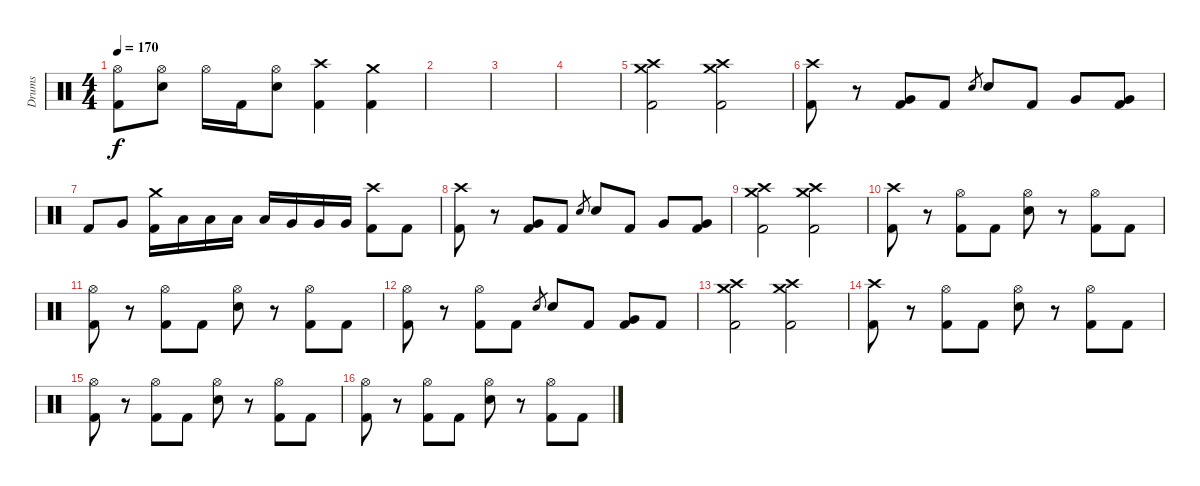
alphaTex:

\track ("Drums" "Drums") {instrument percussion}
\staff {score}
\articulation defaults
\ts (4 4)
\tempo 170
\clef neutral
\ks c
("Hi-Hat (open)" "Kick (hit) 2").8{dy f} ("Hi-Hat (open)" "Electric Snare (hit)").8 "Hi-Hat (open)".16 "Kick (hit) 2".16 ("Hi-Hat (open)" "Electric Snare (hit)").8 ("Crash high (hit)" "Kick (hit) 2").4 ("Crash medium (hit)" "Kick (hit) 2").4 |
|
|
|
("Crash high (hit)" "Crash medium (hit)" "Kick (hit) 2").2 ("Crash high (hit)" "Crash medium (hit)" "Kick (hit) 2").2 |
("Crash high (hit)" "Kick (hit) 2").8 r.8 ("Very Low Tom (hit)" "Kick (hit) 2").8 "Kick (hit) 2".8 "Electric Snare (hit)".8{gr} "Electric Snare (hit)".8 "Kick (hit) 2".8 "Very Low Tom (hit)".8 ("Very Low Tom (hit)" "Kick (hit) 2").8 |
"Kick (hit) 2".8 "Very Low Tom (hit)".8 ("Crash medium (hit)" "Kick (hit) 2").16 "Low Tom (hit)".16 "Low Tom (hit)".16 "Low Tom (hit)".16 "Low Tom (hit)".16 "Very Low Tom (hit)".16 "Very Low Tom (hit)".16 "Very Low Tom (hit)".16 ("Crash high (hit)" "Kick (hit) 2").8 "Kick (hit) 2".8 |
("Crash high (hit)" "Kick (hit) 2").8 r.8 ("Very Low Tom (hit)" "Kick (hit) 2").8 "Kick (hit) 2".8 "Electric Snare (hit)".8{gr} "Electric Snare (hit)".8 "Kick (hit) 2".8 "Very Low Tom (hit)".8 ("Very Low Tom (hit)" "Kick (hit) 2").8 |
("Crash high (hit)" "Crash medium (hit)" "Kick (hit) 2").2 ("Crash high (hit)" "Crash medium (hit)" "Kick (hit) 2").2 |
("Crash high (hit)" "Kick (hit) 2").8 r.8 ("Hi-Hat (open)" "Kick (hit) 2").8 "Kick (hit) 2".8 ("Hi-Hat (open)" "Electric Snare (hit)").8 r.8 ("Hi-Hat (open)" "Kick (hit) 2").8 "Kick (hit) 2".8 |
("Hi-Hat (open)" "Kick (hit) 2").8 r.8 ("Hi-Hat (open)" "Kick (hit) 2").8 "Kick (hit) 2".8 ("Hi-Hat (open)" "Electric Snare (hit)").8 r.8 ("Hi-Hat (open)" "Kick (hit) 2").8 "Kick (hit) 2".8 |
("Hi-Hat (open)" "Kick (hit) 2").8 r.8 ("Hi-Hat (open)" "Kick (hit) 2").8 "Kick (hit) 2".8 "Electric Snare (hit)".8{gr} "Electric Snare (hit)".8 "Kick (hit) 2".8 ("Very Low Tom (hit)" "Kick (hit) 2").8 "Kick (hit) 2".8 |
("Crash high (hit)" "Crash medium (hit)" "Kick (hit) 2").2 ("Crash high (hit)" "Crash medium (hit)" "Kick (hit) 2").2 |
("Crash high (hit)" "Kick (hit) 2").8 r.8 ("Hi-Hat (open)" "Kick (hit) 2").8 "Kick (hit) 2".8 ("Hi-Hat (open)" "Electric Snare (hit)").8 r.8 ("Hi-Hat (open)" "Kick (hit) 2").8 "Kick (hit) 2".8 |
("Hi-Hat (open)" "Kick (hit) 2").8 r.8 ("Hi-Hat (open)" "Kick (hit) 2").8 "Kick (hit) 2".8 ("Hi-Hat (open)" "Electric Snare (hit)").8 r.8 ("Hi-Hat (open)" "Kick (hit) 2").8 "Kick (hit) 2".8 |
("Hi-Hat (open)" "Kick (hit) 2").8 r.8 ("Hi-Hat (open)" "Kick (hit) 2").8 "Kick (hit) 2".8 ("Hi-Hat (open)" "Electric Snare (hit)").8 r.8 ("Hi-Hat (open)" "Kick (hit) 2").8 "Kick (hit) 2".8
